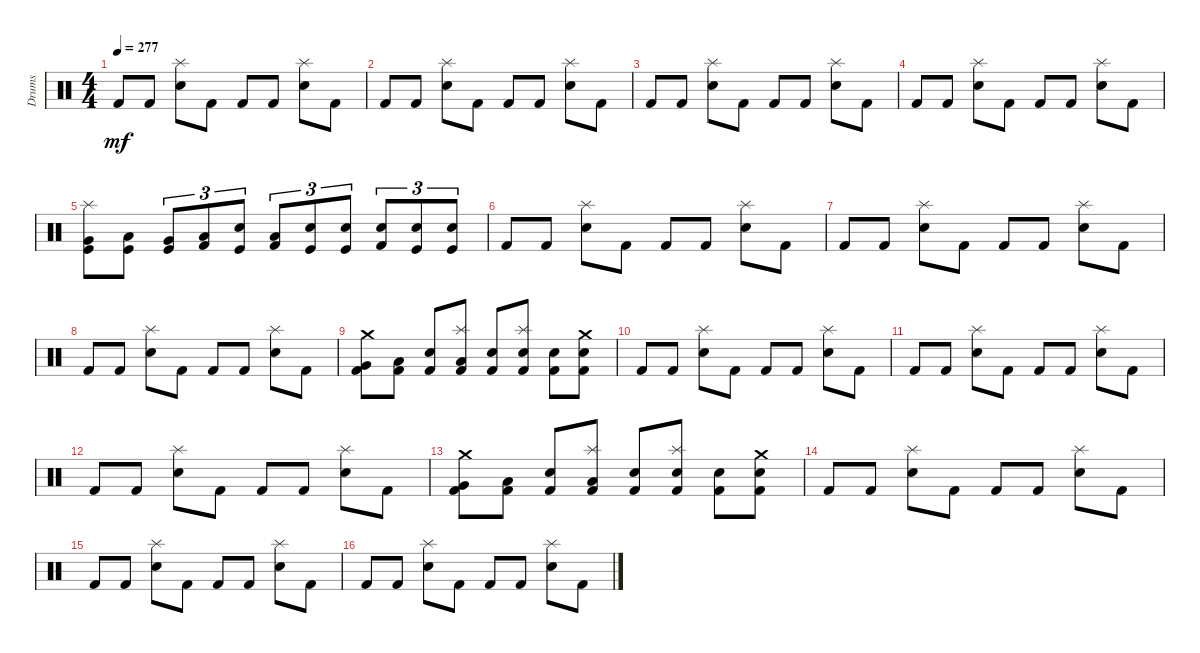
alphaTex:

\track ("Drums" "Drums") {instrument percussion}
\staff {score}
\articulation defaults
\ts (4 4)
\tempo 277
\clef neutral
\ks c "Kick (hit) 2".8{dy mf} "Kick (hit) 2".8
("Splash (hit)" "Electric Snare (hit)").8 "Kick (hit) 2".8 "Kick (hit) 2".8 "Kick (hit) 2".8 ("Splash (hit)" "Electric Snare (hit)").8 "Kick (hit) 2".8 |
"Kick (hit) 2".8 "Kick (hit) 2".8 ("Electric Snare (hit)" "Splash (hit)").8 "Kick (hit) 2".8 "Kick (hit) 2".8 "Kick (hit) 2".8 ("Electric Snare (hit)" "Splash (hit)").8 "Kick (hit) 2".8 |
"Kick (hit) 2".8 "Kick (hit) 2".8 ("Electric Snare (hit)" "Splash (hit)").8 "Kick (hit) 2".8 "Kick (hit) 2".8 "Kick (hit) 2".8 ("Splash (hit)" "Electric Snare (hit)").8 "Kick (hit) 2".8 |
"Kick (hit) 2".8 "Kick (hit) 2".8 ("Splash (hit)" "Electric Snare (hit)").8 "Kick (hit) 2".8 "Kick (hit) 2".8 "Kick (hit) 2".8 ("Electric Snare (hit)" "Splash (hit)").8 "Kick (hit) 2".8 |
("Kick (hit)" "Splash (hit)" "Very Low Tom (hit)").8 ("Kick (hit)" "Low Floor Tom (hit)").8 ("Kick (hit)" "Very Low Tom (hit)").8{tu (3 2)} ("Low Floor Tom (hit)" "Kick (hit) 2").8{tu (3 2)} ("Kick (hit)" "Electric Snare (hit)").8{tu (3 2)} ("Low Floor Tom (hit)" "Kick (hit) 2").8{tu (3 2)} ("Kick (hit)" "Electric Snare (hit)").8{tu (3 2)} ("Snare (hit) 2" "Kick (hit)").8{tu (3 2)} ("Electric Snare (hit)" "Kick (hit) 2").8{tu (3 2)} ("Snare (hit) 2" "Kick (hit)").8{tu (3 2)} ("Kick (hit)" "Electric Snare (hit)").8{tu (3 2)} |
"Kick (hit) 2".8 "Kick (hit) 2".8 ("Splash (hit)" "Electric Snare (hit)").8 "Kick (hit) 2".8 "Kick (hit) 2".8 "Kick (hit) 2".8 ("Splash (hit)" "Electric Snare (hit)").8 "Kick (hit) 2".8 |
"Kick (hit) 2".8 "Kick (hit) 2".8 ("Electric Snare (hit)" "Splash (hit)").8 "Kick (hit) 2".8 "Kick (hit) 2".8 "Kick (hit) 2".8 ("Splash (hit)" "Electric Snare (hit)").8 "Kick (hit) 2".8 |
"Kick (hit) 2".8 "Kick (hit) 2".8 ("Splash (hit)" "Electric Snare (hit)").8 "Kick (hit) 2".8 "Kick (hit) 2".8 "Kick (hit) 2".8 ("Electric Snare (hit)" "Splash (hit)").8 "Kick (hit) 2".8 |
("Very Low Tom (hit)" "Kick (hit) 2" "Crash medium (hit)").8 ("Kick (hit) 2" "Low Floor Tom (hit)").8 ("Kick (hit) 2" "Electric Snare (hit)").8 ("Low Floor Tom (hit)" "Kick (hit) 2" "Splash (hit)").8 ("Kick (hit) 2" "Electric Snare (hit)").8 ("Kick (hit) 2" "Splash (hit)" "Snare (hit) 2").8 ("Electric Snare (hit)" "Kick (hit) 2").8 ("Kick (hit) 2" "Snare (hit) 2" "Crash medium (hit)").8 |
"Kick (hit) 2".8 "Kick (hit) 2".8 ("Splash (hit)" "Electric Snare (hit)").8 "Kick (hit) 2".8 "Kick (hit) 2".8 "Kick (hit) 2".8 ("Splash (hit)" "Electric Snare (hit)").8 "Kick (hit) 2".8 |
"Kick (hit) 2".8 "Kick (hit) 2".8 ("Electric Snare (hit)" "Splash (hit)").8 "Kick (hit) 2".8 "Kick (hit) 2".8 "Kick (hit) 2".8 ("Electric Snare (hit)" "Splash (hit)").8 "Kick (hit) 2".8 |
"Kick (hit) 2".8 "Kick (hit) 2".8 ("Splash (hit)" "Electric Snare (hit)").8 "Kick (hit) 2".8 "Kick (hit) 2".8 "Kick (hit) 2".8 ("Electric Snare (hit)" "Splash (hit)").8 "Kick (hit) 2".8 |
("Kick (hit) 2" "Very Low Tom (hit)" "Crash medium (hit)").8 ("Low Floor Tom (hit)" "Kick (hit) 2").8 ("Kick (hit) 2" "Electric Snare (hit)").8 ("Kick (hit) 2" "Splash (hit)" "Low Floor Tom (hit)").8 ("Kick (hit) 2" "Electric Snare (hit)").8 ("Snare (hit) 2" "Splash (hit)" "Kick (hit) 2").8 ("Kick (hit) 2" "Electric Snare (hit)").8 ("Crash medium (hit)" "Kick (hit) 2" "Snare (hit) 2").8 |
"Kick (hit) 2".8 "Kick (hit) 2".8 ("Electric Snare (hit)" "Splash (hit)").8 "Kick (hit) 2".8 "Kick (hit) 2".8 "Kick (hit) 2".8 ("Electric Snare (hit)" "Splash (hit)").8 "Kick (hit) 2".8 |
"Kick (hit) 2".8 "Kick (hit) 2".8 ("Electric Snare (hit)" "Splash (hit)").8 "Kick (hit) 2".8 "Kick (hit) 2".8 "Kick (hit) 2".8 ("Electric Snare (hit)" "Splash (hit)").8 "Kick (hit) 2".8 |
"Kick (hit) 2".8 "Kick (hit) 2".8 ("Electric Snare (hit)" "Splash (hit)").8 "Kick (hit) 2".8 "Kick (hit) 2".8 "Kick (hit) 2".8 ("Electric Snare (hit)" "Splash (hit)").8 "Kick (hit) 2".8
